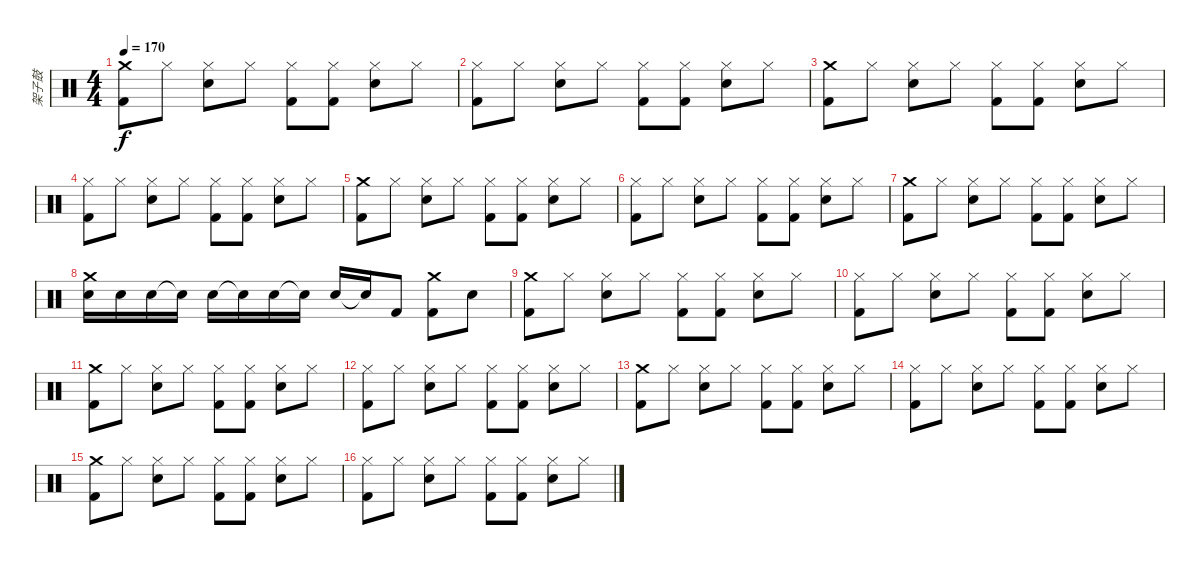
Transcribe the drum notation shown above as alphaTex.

\track ("架子鼓" "架子鼓") {instrument percussion}
\staff {score}
\articulation defaults
\ts (4 4)
\tempo 170
\clef neutral
\ks c
("Crash medium (hit)" "Kick (hit) 2").8{dy f} "Hi-Hat (closed)".8 ("Hi-Hat (closed)" "Snare (hit) 2").8 "Hi-Hat (closed)".8 ("Hi-Hat (closed)" "Kick (hit) 2").8 ("Hi-Hat (closed)" "Kick (hit) 2").8 ("Hi-Hat (closed)" "Snare (hit) 2").8 "Hi-Hat (closed)".8 |
("Hi-Hat (closed)" "Kick (hit) 2").8 "Hi-Hat (closed)".8 ("Hi-Hat (closed)" "Snare (hit) 2").8 "Hi-Hat (closed)".8 ("Hi-Hat (closed)" "Kick (hit) 2").8 ("Hi-Hat (closed)" "Kick (hit) 2").8 ("Hi-Hat (closed)" "Snare (hit) 2").8 "Hi-Hat (closed)".8 |
("Crash medium (hit)" "Kick (hit) 2").8 "Hi-Hat (closed)".8 ("Hi-Hat (closed)" "Snare (hit) 2").8 "Hi-Hat (closed)".8 ("Hi-Hat (closed)" "Kick (hit) 2").8 ("Hi-Hat (closed)" "Kick (hit) 2").8 ("Hi-Hat (closed)" "Snare (hit) 2").8 "Hi-Hat (closed)".8 |
("Hi-Hat (closed)" "Kick (hit) 2").8 "Hi-Hat (closed)".8 ("Hi-Hat (closed)" "Snare (hit) 2").8 "Hi-Hat (closed)".8 ("Hi-Hat (closed)" "Kick (hit) 2").8 ("Hi-Hat (closed)" "Kick (hit) 2").8 ("Hi-Hat (closed)" "Snare (hit) 2").8 "Hi-Hat (closed)".8 |
("Crash medium (hit)" "Kick (hit) 2").8 "Hi-Hat (closed)".8 ("Hi-Hat (closed)" "Snare (hit) 2").8 "Hi-Hat (closed)".8 ("Hi-Hat (closed)" "Kick (hit) 2").8 ("Hi-Hat (closed)" "Kick (hit) 2").8 ("Hi-Hat (closed)" "Snare (hit) 2").8 "Hi-Hat (closed)".8 |
("Hi-Hat (closed)" "Kick (hit) 2").8 "Hi-Hat (closed)".8 ("Hi-Hat (closed)" "Snare (hit) 2").8 "Hi-Hat (closed)".8 ("Hi-Hat (closed)" "Kick (hit) 2").8 ("Hi-Hat (closed)" "Kick (hit) 2").8 ("Hi-Hat (closed)" "Snare (hit) 2").8 "Hi-Hat (closed)".8 |
("Crash medium (hit)" "Kick (hit) 2").8 "Hi-Hat (closed)".8 ("Hi-Hat (closed)" "Snare (hit) 2").8 "Hi-Hat (closed)".8 ("Hi-Hat (closed)" "Kick (hit) 2").8 ("Hi-Hat (closed)" "Kick (hit) 2").8 ("Hi-Hat (closed)" "Snare (hit) 2").8 "Hi-Hat (closed)".8 |
("Crash medium (hit)" "Snare (hit) 2").16 "Snare (hit) 2".16 "Snare (hit) 2".16 "Snare (hit)"{t}.16 "Snare (hit) 2".16 "Snare (hit)"{t}.16 "Snare (hit) 2".16 "Snare (hit)"{t}.16 "Snare (hit) 2".16 "Snare (hit)"{t}.16 "Kick (hit) 2".8 ("Crash medium (hit)" "Kick (hit) 2").8 "Snare (hit) 2".8 |
("Crash medium (hit)" "Kick (hit) 2").8 "Hi-Hat (closed)".8 ("Hi-Hat (closed)" "Snare (hit) 2").8 "Hi-Hat (closed)".8 ("Hi-Hat (closed)" "Kick (hit) 2").8 ("Hi-Hat (closed)" "Kick (hit) 2").8 ("Hi-Hat (closed)" "Snare (hit) 2").8 "Hi-Hat (closed)".8 |
("Hi-Hat (closed)" "Kick (hit) 2").8 "Hi-Hat (closed)".8 ("Hi-Hat (closed)" "Snare (hit) 2").8 "Hi-Hat (closed)".8 ("Hi-Hat (closed)" "Kick (hit) 2").8 ("Hi-Hat (closed)" "Kick (hit) 2").8 ("Hi-Hat (closed)" "Snare (hit) 2").8 "Hi-Hat (closed)".8 |
("Crash medium (hit)" "Kick (hit) 2").8 "Hi-Hat (closed)".8 ("Hi-Hat (closed)" "Snare (hit) 2").8 "Hi-Hat (closed)".8 ("Hi-Hat (closed)" "Kick (hit) 2").8 ("Hi-Hat (closed)" "Kick (hit) 2").8 ("Hi-Hat (closed)" "Snare (hit) 2").8 "Hi-Hat (closed)".8 |
("Hi-Hat (closed)" "Kick (hit) 2").8 "Hi-Hat (closed)".8 ("Hi-Hat (closed)" "Snare (hit) 2").8 "Hi-Hat (closed)".8 ("Hi-Hat (closed)" "Kick (hit) 2").8 ("Hi-Hat (closed)" "Kick (hit) 2").8 ("Hi-Hat (closed)" "Snare (hit) 2").8 "Hi-Hat (closed)".8 |
("Crash medium (hit)" "Kick (hit) 2").8 "Hi-Hat (closed)".8 ("Hi-Hat (closed)" "Snare (hit) 2").8 "Hi-Hat (closed)".8 ("Hi-Hat (closed)" "Kick (hit) 2").8 ("Hi-Hat (closed)" "Kick (hit) 2").8 ("Hi-Hat (closed)" "Snare (hit) 2").8 "Hi-Hat (closed)".8 |
("Hi-Hat (closed)" "Kick (hit) 2").8 "Hi-Hat (closed)".8 ("Hi-Hat (closed)" "Snare (hit) 2").8 "Hi-Hat (closed)".8 ("Hi-Hat (closed)" "Kick (hit) 2").8 ("Hi-Hat (closed)" "Kick (hit) 2").8 ("Hi-Hat (closed)" "Snare (hit) 2").8 "Hi-Hat (closed)".8 |
("Crash medium (hit)" "Kick (hit) 2").8 "Hi-Hat (closed)".8 ("Hi-Hat (closed)" "Snare (hit) 2").8 "Hi-Hat (closed)".8 ("Hi-Hat (closed)" "Kick (hit) 2").8 ("Hi-Hat (closed)" "Kick (hit) 2").8 ("Hi-Hat (closed)" "Snare (hit) 2").8 "Hi-Hat (closed)".8 |
("Hi-Hat (closed)" "Kick (hit) 2").8 "Hi-Hat (closed)".8 ("Hi-Hat (closed)" "Snare (hit) 2").8 "Hi-Hat (closed)".8 ("Hi-Hat (closed)" "Kick (hit) 2").8 ("Hi-Hat (closed)" "Kick (hit) 2").8 ("Hi-Hat (closed)" "Snare (hit) 2").8 "Hi-Hat (closed)".8
